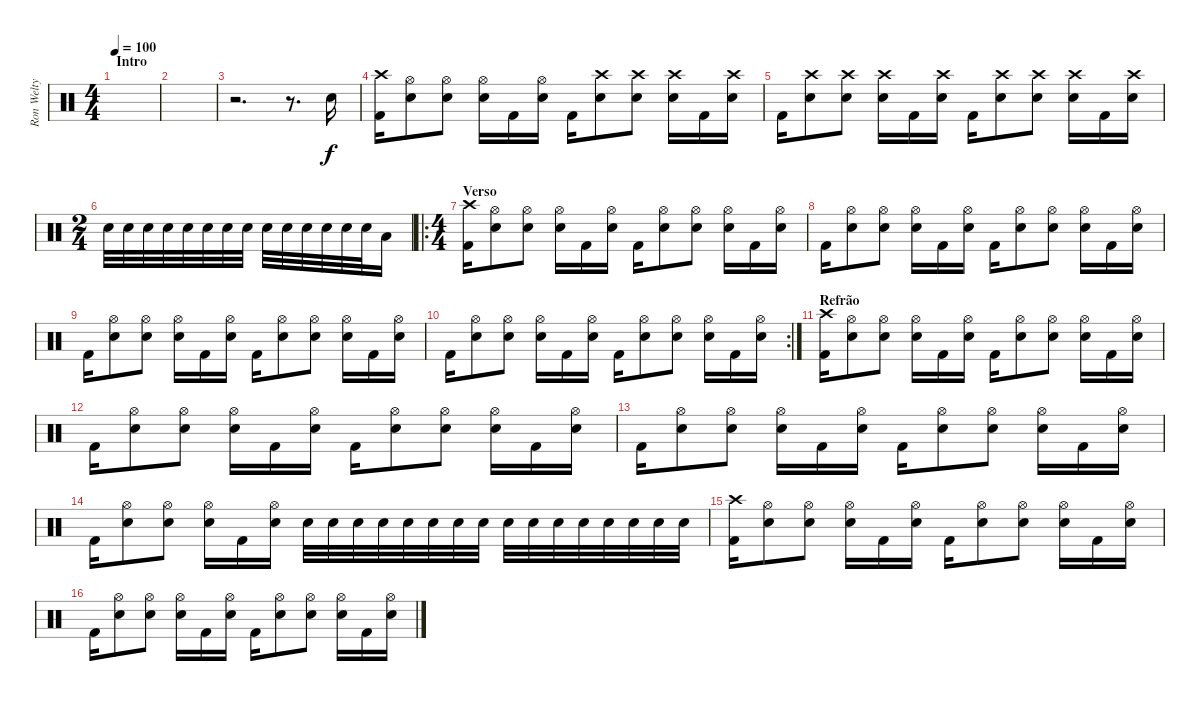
\track ("Ron Welty" "Ron Welty") {instrument percussion}
\staff {score}
\articulation defaults
\ts (4 4)
\section ("" "Intro")
\tempo 100
\clef neutral
\ks c
|
|
r.2{d} r.8{d} "Snare (hit) 2".16 |
("Crash high (hit)" "Kick (hit) 2").16 ("Hi-Hat (open)" "Snare (hit) 2").8 ("Hi-Hat (open)" "Snare (hit) 2").8 ("Hi-Hat (open)" "Snare (hit) 2").16 "Kick (hit) 2".16 ("Hi-Hat (open)" "Snare (hit) 2").16 "Kick (hit) 2".16 ("Crash high (hit)" "Snare (hit) 2").8 ("Crash high (hit)" "Snare (hit) 2").8 ("Crash high (hit)" "Snare (hit) 2").16 "Kick (hit) 2".16 ("Crash high (hit)" "Snare (hit) 2").16 |
"Kick (hit) 2".16 ("Crash high (hit)" "Snare (hit) 2").8 ("Crash high (hit)" "Snare (hit) 2").8 ("Crash high (hit)" "Snare (hit) 2").16 "Kick (hit) 2".16 ("Crash high (hit)" "Snare (hit) 2").16 "Kick (hit) 2".16 ("Crash high (hit)" "Snare (hit) 2").8 ("Crash high (hit)" "Snare (hit) 2").8 ("Crash high (hit)" "Snare (hit) 2").16 "Kick (hit) 2".16 ("Crash high (hit)" "Snare (hit) 2").16 |
\ts (2 4)
"Snare (hit) 2".32 "Snare (hit) 2".32 "Snare (hit) 2".32 "Snare (hit) 2".32 "Snare (hit) 2".32 "Snare (hit) 2".32 "Snare (hit) 2".32 "Snare (hit) 2".32 "Snare (hit) 2".32 "Snare (hit) 2".32 "Snare (hit) 2".32 "Snare (hit) 2".32 "Snare (hit) 2".32 "Snare (hit) 2".32 "Low Tom (hit)".16 |
\ro
\ts (4 4)
\section ("" "Verso")
("Crash high (hit)" "Kick (hit) 2").16 ("Hi-Hat (open)" "Snare (hit) 2").8 ("Hi-Hat (open)" "Snare (hit) 2").8 ("Hi-Hat (open)" "Snare (hit) 2").16 "Kick (hit) 2".16 ("Hi-Hat (open)" "Snare (hit) 2").16 "Kick (hit) 2".16 ("Hi-Hat (open)" "Snare (hit) 2").8 ("Hi-Hat (open)" "Snare (hit) 2").8 ("Hi-Hat (open)" "Snare (hit) 2").16 "Kick (hit) 2".16 ("Hi-Hat (open)" "Snare (hit) 2").16 |
"Kick (hit) 2".16 ("Hi-Hat (open)" "Snare (hit) 2").8 ("Hi-Hat (open)" "Snare (hit) 2").8 ("Hi-Hat (open)" "Snare (hit) 2").16 "Kick (hit) 2".16 ("Hi-Hat (open)" "Snare (hit) 2").16 "Kick (hit) 2".16 ("Hi-Hat (open)" "Snare (hit) 2").8 ("Hi-Hat (open)" "Snare (hit) 2").8 ("Hi-Hat (open)" "Snare (hit) 2").16 "Kick (hit) 2".16 ("Hi-Hat (open)" "Snare (hit) 2").16 |
"Kick (hit) 2".16 ("Hi-Hat (open)" "Snare (hit) 2").8 ("Hi-Hat (open)" "Snare (hit) 2").8 ("Hi-Hat (open)" "Snare (hit) 2").16 "Kick (hit) 2".16 ("Hi-Hat (open)" "Snare (hit) 2").16 "Kick (hit) 2".16 ("Hi-Hat (open)" "Snare (hit) 2").8 ("Hi-Hat (open)" "Snare (hit) 2").8 ("Hi-Hat (open)" "Snare (hit) 2").16 "Kick (hit) 2".16 ("Hi-Hat (open)" "Snare (hit) 2").16 |
\rc 2 "Kick (hit) 2".16
("Hi-Hat (open)" "Snare (hit) 2").8 ("Hi-Hat (open)" "Snare (hit) 2").8 ("Hi-Hat (open)" "Snare (hit) 2").16 "Kick (hit) 2".16 ("Hi-Hat (open)" "Snare (hit) 2").16 "Kick (hit) 2".16 ("Hi-Hat (open)" "Snare (hit) 2").8 ("Hi-Hat (open)" "Snare (hit) 2").8 ("Hi-Hat (open)" "Snare (hit) 2").16 "Kick (hit) 2".16 ("Hi-Hat (open)" "Snare (hit) 2").16 |
\section ("" "Refrão")
("Crash high (hit)" "Kick (hit) 2").16 ("Hi-Hat (open)" "Snare (hit) 2").8 ("Hi-Hat (open)" "Snare (hit) 2").8 ("Hi-Hat (open)" "Snare (hit) 2").16 "Kick (hit) 2".16 ("Hi-Hat (open)" "Snare (hit) 2").16 "Kick (hit) 2".16 ("Hi-Hat (open)" "Snare (hit) 2").8 ("Hi-Hat (open)" "Snare (hit) 2").8 ("Hi-Hat (open)" "Snare (hit) 2").16 "Kick (hit) 2".16 ("Hi-Hat (open)" "Snare (hit) 2").16 |
"Kick (hit) 2".16 ("Hi-Hat (open)" "Snare (hit) 2").8 ("Hi-Hat (open)" "Snare (hit) 2").8 ("Hi-Hat (open)" "Snare (hit) 2").16 "Kick (hit) 2".16 ("Hi-Hat (open)" "Snare (hit) 2").16 "Kick (hit) 2".16 ("Hi-Hat (open)" "Snare (hit) 2").8 ("Hi-Hat (open)" "Snare (hit) 2").8 ("Hi-Hat (open)" "Snare (hit) 2").16 "Kick (hit) 2".16 ("Hi-Hat (open)" "Snare (hit) 2").16 |
"Kick (hit) 2".16 ("Hi-Hat (open)" "Snare (hit) 2").8 ("Hi-Hat (open)" "Snare (hit) 2").8 ("Hi-Hat (open)" "Snare (hit) 2").16 "Kick (hit) 2".16 ("Hi-Hat (open)" "Snare (hit) 2").16 "Kick (hit) 2".16 ("Hi-Hat (open)" "Snare (hit) 2").8 ("Hi-Hat (open)" "Snare (hit) 2").8 ("Hi-Hat (open)" "Snare (hit) 2").16 "Kick (hit) 2".16 ("Hi-Hat (open)" "Snare (hit) 2").16 |
"Kick (hit) 2".16 ("Hi-Hat (open)" "Snare (hit) 2").8 ("Hi-Hat (open)" "Snare (hit) 2").8 ("Hi-Hat (open)" "Snare (hit) 2").16 "Kick (hit) 2".16 ("Hi-Hat (open)" "Snare (hit) 2").16 "Snare (hit) 2".32 "Snare (hit) 2".32 "Snare (hit) 2".32 "Snare (hit) 2".32 "Snare (hit) 2".32 "Snare (hit) 2".32 "Snare (hit) 2".32 "Snare (hit) 2".32 "Snare (hit) 2".32 "Snare (hit) 2".32 "Snare (hit) 2".32 "Snare (hit) 2".32 "Snare (hit) 2".32 "Snare (hit) 2".32 "Snare (hit) 2".32 "Snare (hit) 2".32 |
("Crash high (hit)" "Kick (hit) 2").16 ("Hi-Hat (open)" "Snare (hit) 2").8 ("Hi-Hat (open)" "Snare (hit) 2").8 ("Hi-Hat (open)" "Snare (hit) 2").16 "Kick (hit) 2".16 ("Hi-Hat (open)" "Snare (hit) 2").16 "Kick (hit) 2".16 ("Hi-Hat (open)" "Snare (hit) 2").8 ("Hi-Hat (open)" "Snare (hit) 2").8 ("Hi-Hat (open)" "Snare (hit) 2").16 "Kick (hit) 2".16 ("Hi-Hat (open)" "Snare (hit) 2").16 |
"Kick (hit) 2".16 ("Hi-Hat (open)" "Snare (hit) 2").8 ("Hi-Hat (open)" "Snare (hit) 2").8 ("Hi-Hat (open)" "Snare (hit) 2").16 "Kick (hit) 2".16 ("Hi-Hat (open)" "Snare (hit) 2").16 "Kick (hit) 2".16 ("Hi-Hat (open)" "Snare (hit) 2").8 ("Hi-Hat (open)" "Snare (hit) 2").8 ("Hi-Hat (open)" "Snare (hit) 2").16 "Kick (hit) 2".16 ("Hi-Hat (open)" "Snare (hit) 2").16
